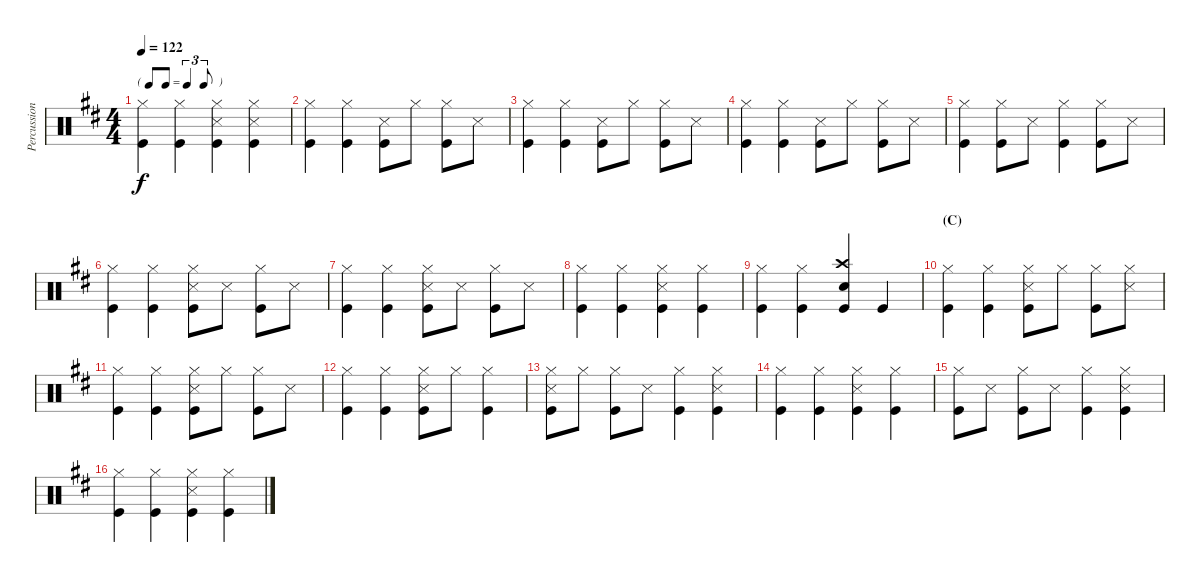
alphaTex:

\track ("Percussion" "Percussion") {instrument percussion}
\staff {score}
\articulation defaults
\ts (4 4)
\tf triplet8th
\tempo 122
\clef neutral
\ks d
("Hi-Hat (closed)" "Kick (hit)").4{dy f} ("Hi-Hat (closed)" "Kick (hit)").4 ("Hi-Hat (closed)" "Snare (side stick) 3" "Kick (hit)").4 ("Hi-Hat (closed)" "Snare (side stick) 3" "Kick (hit)").4 |
("Hi-Hat (closed)" "Kick (hit)").4 ("Hi-Hat (closed)" "Kick (hit)").4 ("Snare (side stick) 3" "Kick (hit)").8 "Hi-Hat (closed)".8 ("Hi-Hat (closed)" "Kick (hit)").8 "Snare (side stick) 3".8 |
("Hi-Hat (closed)" "Kick (hit)").4 ("Hi-Hat (closed)" "Kick (hit)").4 ("Snare (side stick) 3" "Kick (hit)").8 "Hi-Hat (closed)".8 ("Hi-Hat (closed)" "Kick (hit)").8 "Snare (side stick) 3".8 |
("Hi-Hat (closed)" "Kick (hit)").4 ("Hi-Hat (closed)" "Kick (hit)").4 ("Snare (side stick) 3" "Kick (hit)").8 "Hi-Hat (closed)".8 ("Hi-Hat (closed)" "Kick (hit)").8 "Snare (side stick) 3".8 |
("Hi-Hat (closed)" "Kick (hit)").4 ("Hi-Hat (closed)" "Kick (hit)").8 "Snare (side stick) 3".8 ("Hi-Hat (closed)" "Kick (hit)").4 ("Hi-Hat (closed)" "Kick (hit)").8 "Snare (side stick) 3".8 |
("Hi-Hat (closed)" "Kick (hit)").4 ("Hi-Hat (closed)" "Kick (hit)").4 ("Hi-Hat (closed)" "Snare (side stick) 3" "Kick (hit)").8 "Snare (side stick) 3".8 ("Hi-Hat (closed)" "Kick (hit)").8 "Snare (side stick) 3".8 |
("Hi-Hat (closed)" "Kick (hit)").4 ("Hi-Hat (closed)" "Kick (hit)").4 ("Hi-Hat (closed)" "Snare (side stick) 3" "Kick (hit)").8 "Snare (side stick) 3".8 ("Hi-Hat (closed)" "Kick (hit)").8 "Snare (side stick) 3".8 |
("Hi-Hat (closed)" "Kick (hit)").4 ("Hi-Hat (closed)" "Kick (hit)").4 ("Hi-Hat (closed)" "Snare (side stick) 3" "Kick (hit)").4 ("Hi-Hat (closed)" "Kick (hit)").4 |
("Hi-Hat (closed)" "Kick (hit)").4 ("Hi-Hat (closed)" "Kick (hit)").4 ("Crash high (hit)" "Snare (hit) 2" "Kick (hit)").4 "Kick (hit)".4 |
\section ("" "(C)")
("Hi-Hat (closed)" "Kick (hit)").4 ("Hi-Hat (closed)" "Kick (hit)").4 ("Hi-Hat (closed)" "Snare (side stick) 3" "Kick (hit)").8 "Hi-Hat (closed)".8 ("Hi-Hat (closed)" "Kick (hit)").8 ("Hi-Hat (closed)" "Snare (side stick) 3").8 |
("Hi-Hat (closed)" "Kick (hit)").4 ("Hi-Hat (closed)" "Kick (hit)").4 ("Hi-Hat (closed)" "Snare (side stick) 3" "Kick (hit)").8 "Hi-Hat (closed)".8 ("Hi-Hat (closed)" "Kick (hit)").8 "Snare (side stick) 3".8 |
("Hi-Hat (closed)" "Kick (hit)").4 ("Hi-Hat (closed)" "Kick (hit)").4 ("Hi-Hat (closed)" "Snare (side stick) 3" "Kick (hit)").8 "Hi-Hat (closed)".8 ("Hi-Hat (closed)" "Kick (hit)").4 |
("Hi-Hat (closed)" "Snare (side stick) 3" "Kick (hit)").8 "Hi-Hat (closed)".8 ("Hi-Hat (closed)" "Kick (hit)").8 "Snare (side stick) 3".8 ("Hi-Hat (closed)" "Kick (hit)").4 ("Hi-Hat (closed)" "Snare (side stick) 3" "Kick (hit)").4 |
("Hi-Hat (closed)" "Kick (hit)").4 ("Hi-Hat (closed)" "Kick (hit)").4 ("Hi-Hat (closed)" "Snare (side stick) 3" "Kick (hit)").4 ("Hi-Hat (closed)" "Kick (hit)").4 |
("Hi-Hat (closed)" "Kick (hit)").8 "Snare (side stick) 3".8 ("Hi-Hat (closed)" "Kick (hit)").8 "Snare (side stick) 3".8 ("Hi-Hat (closed)" "Kick (hit)").4 ("Hi-Hat (closed)" "Snare (side stick) 3" "Kick (hit)").4 |
("Hi-Hat (closed)" "Kick (hit)").4 ("Hi-Hat (closed)" "Kick (hit)").4 ("Hi-Hat (closed)" "Snare (side stick) 3" "Kick (hit)").4 ("Hi-Hat (closed)" "Kick (hit)").4
